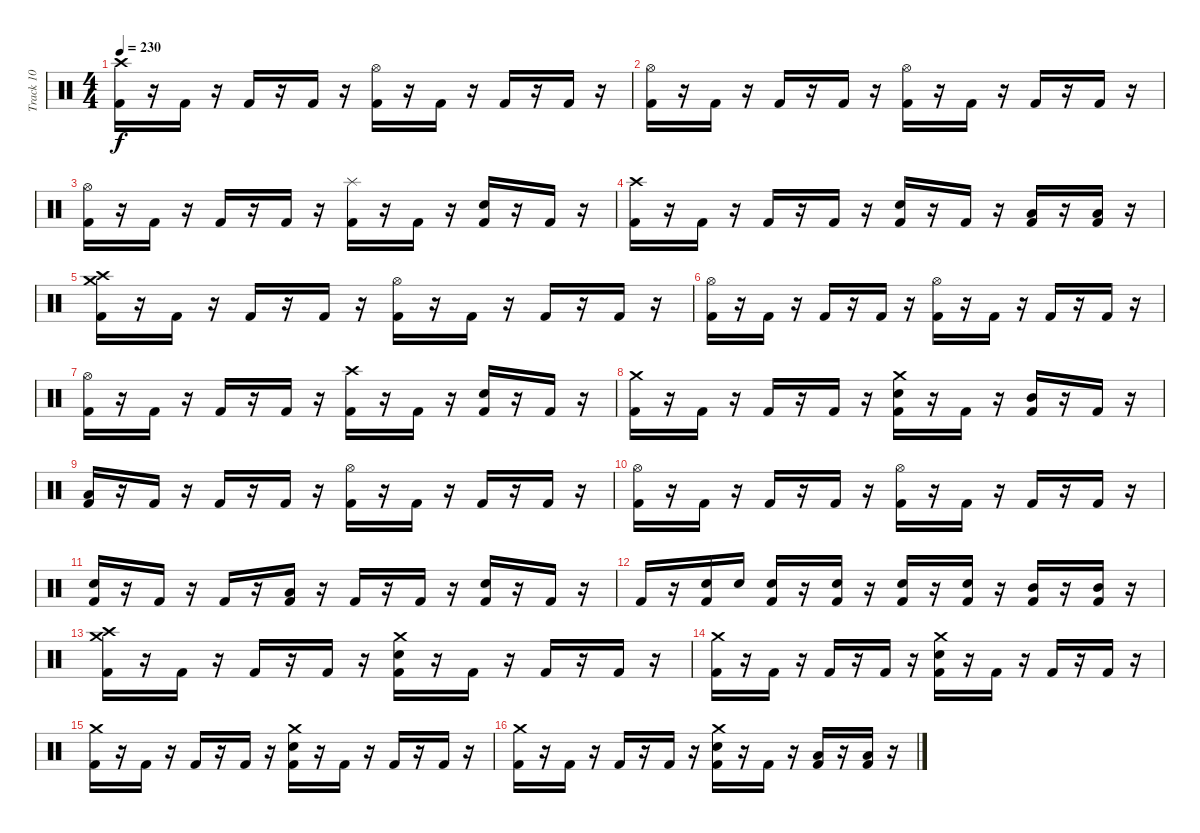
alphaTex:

\track ("Track 10" "Track 10") {instrument percussion}
\staff {score}
\articulation defaults
\ts (4 4)
\tempo 230
\clef neutral
\ks c
("Kick (hit) 2" "Crash high (hit)").16{dy f} r.16 "Kick (hit) 2".16 r.16 "Kick (hit) 2".16 r.16 "Kick (hit) 2".16 r.16 ("Kick (hit) 2" "Hi-Hat (open)").16 r.16 "Kick (hit) 2".16 r.16 "Kick (hit) 2".16 r.16 "Kick (hit) 2".16 r.16 |
("Kick (hit) 2" "Hi-Hat (open)").16 r.16 "Kick (hit) 2".16 r.16 "Kick (hit) 2".16 r.16 "Kick (hit) 2".16 r.16 ("Kick (hit) 2" "Hi-Hat (open)").16 r.16 "Kick (hit) 2".16 r.16 "Kick (hit) 2".16 r.16 "Kick (hit) 2".16 r.16 |
("Kick (hit) 2" "Hi-Hat (open)").16 r.16 "Kick (hit) 2".16 r.16 "Kick (hit) 2".16 r.16 "Kick (hit) 2".16 r.16 ("Kick (hit) 2" "Splash (hit)").16 r.16 "Kick (hit) 2".16 r.16 ("Kick (hit) 2" "Snare (hit) 2").16 r.16 "Kick (hit) 2".16 r.16 |
("Kick (hit) 2" "Crash high (hit)").16 r.16 "Kick (hit) 2".16 r.16 "Kick (hit) 2".16 r.16 "Kick (hit) 2".16 r.16 ("Kick (hit) 2" "Snare (hit) 2").16 r.16 "Kick (hit) 2".16 r.16 ("Kick (hit) 2" "Low Tom (hit)").16 r.16 ("Kick (hit) 2" "Low Tom (hit)").16 r.16 |
("Kick (hit) 2" "Crash high (hit)" "Crash medium (hit)").16 r.16 "Kick (hit) 2".16 r.16 "Kick (hit) 2".16 r.16 "Kick (hit) 2".16 r.16 ("Kick (hit) 2" "Hi-Hat (open)").16 r.16 "Kick (hit) 2".16 r.16 "Kick (hit) 2".16 r.16 "Kick (hit) 2".16 r.16 |
("Kick (hit) 2" "Hi-Hat (open)").16 r.16 "Kick (hit) 2".16 r.16 "Kick (hit) 2".16 r.16 "Kick (hit) 2".16 r.16 ("Kick (hit) 2" "Hi-Hat (open)").16 r.16 "Kick (hit) 2".16 r.16 "Kick (hit) 2".16 r.16 "Kick (hit) 2".16 r.16 |
("Kick (hit) 2" "Hi-Hat (open)").16 r.16 "Kick (hit) 2".16 r.16 "Kick (hit) 2".16 r.16 "Kick (hit) 2".16 r.16 ("Kick (hit) 2" "Crash high (hit)").16 r.16 "Kick (hit) 2".16 r.16 ("Kick (hit) 2" "Snare (hit) 2").16 r.16 "Kick (hit) 2".16 r.16 |
("Kick (hit) 2" "Crash medium (hit)").16 r.16 "Kick (hit) 2".16 r.16 "Kick (hit) 2".16 r.16 "Kick (hit) 2".16 r.16 ("Kick (hit) 2" "Snare (hit) 2" "Crash medium (hit)").16 r.16 "Kick (hit) 2".16 r.16 ("Kick (hit) 2" "Mid Tom (hit)").16 r.16 "Kick (hit) 2".16 r.16 |
("Kick (hit) 2" "Low Tom (hit)").16 r.16 "Kick (hit) 2".16 r.16 "Kick (hit) 2".16 r.16 "Kick (hit) 2".16 r.16 ("Kick (hit) 2" "Hi-Hat (open)").16 r.16 "Kick (hit) 2".16 r.16 "Kick (hit) 2".16 r.16 "Kick (hit) 2".16 r.16 |
("Kick (hit) 2" "Hi-Hat (open)").16 r.16 "Kick (hit) 2".16 r.16 "Kick (hit) 2".16 r.16 "Kick (hit) 2".16 r.16 ("Kick (hit) 2" "Hi-Hat (open)").16 r.16 "Kick (hit) 2".16 r.16 "Kick (hit) 2".16 r.16 "Kick (hit) 2".16 r.16 |
("Kick (hit) 2" "Snare (hit) 2").16 r.16 "Kick (hit) 2".16 r.16 "Kick (hit) 2".16 r.16 ("Kick (hit) 2" "Low Tom (hit)").16 r.16 "Kick (hit) 2".16 r.16 "Kick (hit) 2".16 r.16 ("Kick (hit) 2" "Snare (hit) 2").16 r.16 "Kick (hit) 2".16 r.16 |
"Kick (hit) 2".16 r.16 ("Kick (hit) 2" "Snare (hit) 2").16 "Snare (hit) 2".16 ("Kick (hit) 2" "Snare (hit) 2").16 r.16 ("Kick (hit) 2" "Snare (hit) 2").16 r.16 ("Kick (hit) 2" "Snare (hit) 2").16 r.16 ("Kick (hit) 2" "Snare (hit) 2").16 r.16 ("Kick (hit) 2" "Mid Tom (hit)").16 r.16 ("Kick (hit) 2" "Mid Tom (hit)").16 r.16 |
("Kick (hit) 2" "Crash high (hit)" "Crash medium (hit)").16 r.16 "Kick (hit) 2".16 r.16 "Kick (hit) 2".16 r.16 "Kick (hit) 2".16 r.16 ("Kick (hit) 2" "Snare (hit) 2" "Crash medium (hit)").16 r.16 "Kick (hit) 2".16 r.16 "Kick (hit) 2".16 r.16 "Kick (hit) 2".16 r.16 |
("Kick (hit) 2" "Crash medium (hit)").16 r.16 "Kick (hit) 2".16 r.16 "Kick (hit) 2".16 r.16 "Kick (hit) 2".16 r.16 ("Kick (hit) 2" "Snare (hit) 2" "Crash medium (hit)").16 r.16 "Kick (hit) 2".16 r.16 "Kick (hit) 2".16 r.16 "Kick (hit) 2".16 r.16 |
("Kick (hit) 2" "Crash medium (hit)").16 r.16 "Kick (hit) 2".16 r.16 "Kick (hit) 2".16 r.16 "Kick (hit) 2".16 r.16 ("Kick (hit) 2" "Snare (hit) 2" "Crash medium (hit)").16 r.16 "Kick (hit) 2".16 r.16 "Kick (hit) 2".16 r.16 "Kick (hit) 2".16 r.16 |
("Kick (hit) 2" "Crash medium (hit)").16 r.16 "Kick (hit) 2".16 r.16 "Kick (hit) 2".16 r.16 "Kick (hit) 2".16 r.16 ("Kick (hit) 2" "Snare (hit) 2" "Crash medium (hit)").16 r.16 "Kick (hit) 2".16 r.16 ("Kick (hit) 2" "Low Tom (hit)").16 r.16 ("Kick (hit) 2" "Low Tom (hit)").16 r.16
